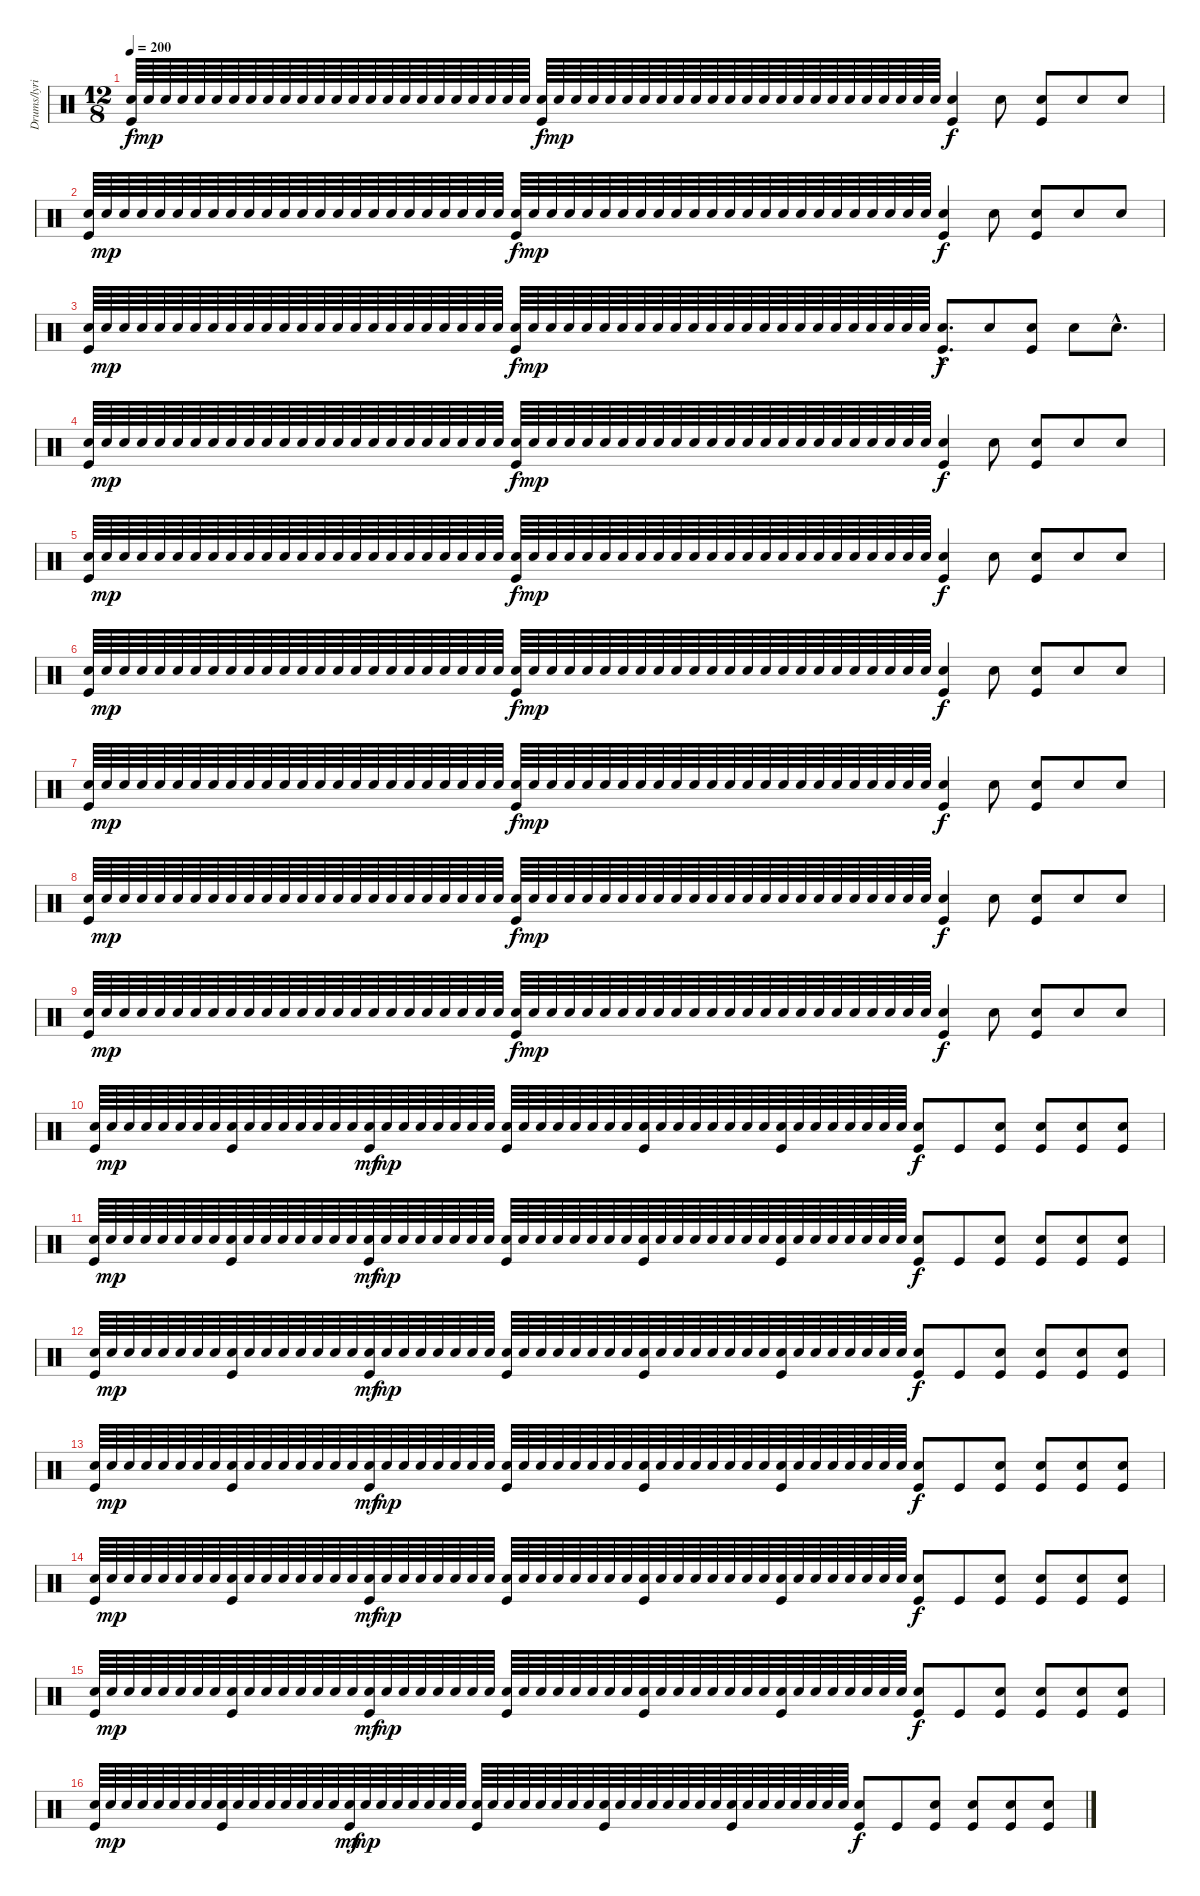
\track ("Drums/lyrics" "Drums/lyri") {instrument percussion}
\staff {score}
\articulation defaults
\ts (12 8)
\tempo 200
\clef neutral
\ks c
("Snare (hit) 2" "Kick (hit)").64{dy f} "Snare (hit) 2".64{dy mp} "Snare (hit) 2".64 "Snare (hit) 2".64 "Snare (hit) 2".64 "Snare (hit) 2".64 "Snare (hit) 2".64 "Snare (hit) 2".64 "Snare (hit) 2".64 "Snare (hit) 2".64 "Snare (hit) 2".64 "Snare (hit) 2".64 "Snare (hit) 2".64 "Snare (hit) 2".64 "Snare (hit) 2".64 "Snare (hit) 2".64 "Snare (hit) 2".64 "Snare (hit) 2".64 "Snare (hit) 2".64 "Snare (hit) 2".64 "Snare (hit) 2".64 "Snare (hit) 2".64 "Snare (hit) 2".64 "Snare (hit) 2".64 ("Snare (hit) 2" "Kick (hit)").64{dy f} "Snare (hit) 2".64{dy mp} "Snare (hit) 2".64 "Snare (hit) 2".64 "Snare (hit) 2".64 "Snare (hit) 2".64 "Snare (hit) 2".64 "Snare (hit) 2".64 "Snare (hit) 2".64 "Snare (hit) 2".64 "Snare (hit) 2".64 "Snare (hit) 2".64 "Snare (hit) 2".64 "Snare (hit) 2".64 "Snare (hit) 2".64 "Snare (hit) 2".64 "Snare (hit) 2".64 "Snare (hit) 2".64 "Snare (hit) 2".64 "Snare (hit) 2".64 "Snare (hit) 2".64 "Snare (hit) 2".64 "Snare (hit) 2".64 "Snare (hit) 2".64 ("Snare (hit) 2" "Kick (hit)").4{dy f} "Snare (hit) 2".8 ("Snare (hit) 2" "Kick (hit)").8 "Snare (hit) 2".8 "Snare (hit) 2".8 |
("Snare (hit) 2" "Kick (hit)").64 "Snare (hit) 2".64{dy mp} "Snare (hit) 2".64 "Snare (hit) 2".64 "Snare (hit) 2".64 "Snare (hit) 2".64 "Snare (hit) 2".64 "Snare (hit) 2".64 "Snare (hit) 2".64 "Snare (hit) 2".64 "Snare (hit) 2".64 "Snare (hit) 2".64 "Snare (hit) 2".64 "Snare (hit) 2".64 "Snare (hit) 2".64 "Snare (hit) 2".64 "Snare (hit) 2".64 "Snare (hit) 2".64 "Snare (hit) 2".64 "Snare (hit) 2".64 "Snare (hit) 2".64 "Snare (hit) 2".64 "Snare (hit) 2".64 "Snare (hit) 2".64 ("Snare (hit) 2" "Kick (hit)").64{dy f} "Snare (hit) 2".64{dy mp} "Snare (hit) 2".64 "Snare (hit) 2".64 "Snare (hit) 2".64 "Snare (hit) 2".64 "Snare (hit) 2".64 "Snare (hit) 2".64 "Snare (hit) 2".64 "Snare (hit) 2".64 "Snare (hit) 2".64 "Snare (hit) 2".64 "Snare (hit) 2".64 "Snare (hit) 2".64 "Snare (hit) 2".64 "Snare (hit) 2".64 "Snare (hit) 2".64 "Snare (hit) 2".64 "Snare (hit) 2".64 "Snare (hit) 2".64 "Snare (hit) 2".64 "Snare (hit) 2".64 "Snare (hit) 2".64 "Snare (hit) 2".64 ("Snare (hit) 2" "Kick (hit)").4{dy f} "Snare (hit) 2".8 ("Snare (hit) 2" "Kick (hit)").8 "Snare (hit) 2".8 "Snare (hit) 2".8 |
("Snare (hit) 2" "Kick (hit)").64 "Snare (hit) 2".64{dy mp} "Snare (hit) 2".64 "Snare (hit) 2".64 "Snare (hit) 2".64 "Snare (hit) 2".64 "Snare (hit) 2".64 "Snare (hit) 2".64 "Snare (hit) 2".64 "Snare (hit) 2".64 "Snare (hit) 2".64 "Snare (hit) 2".64 "Snare (hit) 2".64 "Snare (hit) 2".64 "Snare (hit) 2".64 "Snare (hit) 2".64 "Snare (hit) 2".64 "Snare (hit) 2".64 "Snare (hit) 2".64 "Snare (hit) 2".64 "Snare (hit) 2".64 "Snare (hit) 2".64 "Snare (hit) 2".64 "Snare (hit) 2".64 ("Snare (hit) 2" "Kick (hit)").64{dy f} "Snare (hit) 2".64{dy mp} "Snare (hit) 2".64 "Snare (hit) 2".64 "Snare (hit) 2".64 "Snare (hit) 2".64 "Snare (hit) 2".64 "Snare (hit) 2".64 "Snare (hit) 2".64 "Snare (hit) 2".64 "Snare (hit) 2".64 "Snare (hit) 2".64 "Snare (hit) 2".64 "Snare (hit) 2".64 "Snare (hit) 2".64 "Snare (hit) 2".64 "Snare (hit) 2".64 "Snare (hit) 2".64 "Snare (hit) 2".64 "Snare (hit) 2".64 "Snare (hit) 2".64 "Snare (hit) 2".64 "Snare (hit) 2".64 "Snare (hit) 2".64 ("Snare (hit) 2"{hac} "Kick (hit)"{hac}).8{d dy f} "Snare (hit) 2".8 ("Snare (hit) 2" "Kick (hit)").8 "Snare (hit) 2".8 "Snare (hit) 2"{hac}.8{d} |
("Snare (hit) 2" "Kick (hit)").64 "Snare (hit) 2".64{dy mp} "Snare (hit) 2".64 "Snare (hit) 2".64 "Snare (hit) 2".64 "Snare (hit) 2".64 "Snare (hit) 2".64 "Snare (hit) 2".64 "Snare (hit) 2".64 "Snare (hit) 2".64 "Snare (hit) 2".64 "Snare (hit) 2".64 "Snare (hit) 2".64 "Snare (hit) 2".64 "Snare (hit) 2".64 "Snare (hit) 2".64 "Snare (hit) 2".64 "Snare (hit) 2".64 "Snare (hit) 2".64 "Snare (hit) 2".64 "Snare (hit) 2".64 "Snare (hit) 2".64 "Snare (hit) 2".64 "Snare (hit) 2".64 ("Snare (hit) 2" "Kick (hit)").64{dy f} "Snare (hit) 2".64{dy mp} "Snare (hit) 2".64 "Snare (hit) 2".64 "Snare (hit) 2".64 "Snare (hit) 2".64 "Snare (hit) 2".64 "Snare (hit) 2".64 "Snare (hit) 2".64 "Snare (hit) 2".64 "Snare (hit) 2".64 "Snare (hit) 2".64 "Snare (hit) 2".64 "Snare (hit) 2".64 "Snare (hit) 2".64 "Snare (hit) 2".64 "Snare (hit) 2".64 "Snare (hit) 2".64 "Snare (hit) 2".64 "Snare (hit) 2".64 "Snare (hit) 2".64 "Snare (hit) 2".64 "Snare (hit) 2".64 "Snare (hit) 2".64 ("Snare (hit) 2" "Kick (hit)").4{dy f} "Snare (hit) 2".8 ("Snare (hit) 2" "Kick (hit)").8 "Snare (hit) 2".8 "Snare (hit) 2".8 |
("Snare (hit) 2" "Kick (hit)").64 "Snare (hit) 2".64{dy mp} "Snare (hit) 2".64 "Snare (hit) 2".64 "Snare (hit) 2".64 "Snare (hit) 2".64 "Snare (hit) 2".64 "Snare (hit) 2".64 "Snare (hit) 2".64 "Snare (hit) 2".64 "Snare (hit) 2".64 "Snare (hit) 2".64 "Snare (hit) 2".64 "Snare (hit) 2".64 "Snare (hit) 2".64 "Snare (hit) 2".64 "Snare (hit) 2".64 "Snare (hit) 2".64 "Snare (hit) 2".64 "Snare (hit) 2".64 "Snare (hit) 2".64 "Snare (hit) 2".64 "Snare (hit) 2".64 "Snare (hit) 2".64 ("Snare (hit) 2" "Kick (hit)").64{dy f} "Snare (hit) 2".64{dy mp} "Snare (hit) 2".64 "Snare (hit) 2".64 "Snare (hit) 2".64 "Snare (hit) 2".64 "Snare (hit) 2".64 "Snare (hit) 2".64 "Snare (hit) 2".64 "Snare (hit) 2".64 "Snare (hit) 2".64 "Snare (hit) 2".64 "Snare (hit) 2".64 "Snare (hit) 2".64 "Snare (hit) 2".64 "Snare (hit) 2".64 "Snare (hit) 2".64 "Snare (hit) 2".64 "Snare (hit) 2".64 "Snare (hit) 2".64 "Snare (hit) 2".64 "Snare (hit) 2".64 "Snare (hit) 2".64 "Snare (hit) 2".64 ("Snare (hit) 2" "Kick (hit)").4{dy f} "Snare (hit) 2".8 ("Snare (hit) 2" "Kick (hit)").8 "Snare (hit) 2".8 "Snare (hit) 2".8 |
("Snare (hit) 2" "Kick (hit)").64 "Snare (hit) 2".64{dy mp} "Snare (hit) 2".64 "Snare (hit) 2".64 "Snare (hit) 2".64 "Snare (hit) 2".64 "Snare (hit) 2".64 "Snare (hit) 2".64 "Snare (hit) 2".64 "Snare (hit) 2".64 "Snare (hit) 2".64 "Snare (hit) 2".64 "Snare (hit) 2".64 "Snare (hit) 2".64 "Snare (hit) 2".64 "Snare (hit) 2".64 "Snare (hit) 2".64 "Snare (hit) 2".64 "Snare (hit) 2".64 "Snare (hit) 2".64 "Snare (hit) 2".64 "Snare (hit) 2".64 "Snare (hit) 2".64 "Snare (hit) 2".64 ("Snare (hit) 2" "Kick (hit)").64{dy f} "Snare (hit) 2".64{dy mp} "Snare (hit) 2".64 "Snare (hit) 2".64 "Snare (hit) 2".64 "Snare (hit) 2".64 "Snare (hit) 2".64 "Snare (hit) 2".64 "Snare (hit) 2".64 "Snare (hit) 2".64 "Snare (hit) 2".64 "Snare (hit) 2".64 "Snare (hit) 2".64 "Snare (hit) 2".64 "Snare (hit) 2".64 "Snare (hit) 2".64 "Snare (hit) 2".64 "Snare (hit) 2".64 "Snare (hit) 2".64 "Snare (hit) 2".64 "Snare (hit) 2".64 "Snare (hit) 2".64 "Snare (hit) 2".64 "Snare (hit) 2".64 ("Snare (hit) 2" "Kick (hit)").4{dy f} "Snare (hit) 2".8 ("Snare (hit) 2" "Kick (hit)").8 "Snare (hit) 2".8 "Snare (hit) 2".8 |
("Snare (hit) 2" "Kick (hit)").64 "Snare (hit) 2".64{dy mp} "Snare (hit) 2".64 "Snare (hit) 2".64 "Snare (hit) 2".64 "Snare (hit) 2".64 "Snare (hit) 2".64 "Snare (hit) 2".64 "Snare (hit) 2".64 "Snare (hit) 2".64 "Snare (hit) 2".64 "Snare (hit) 2".64 "Snare (hit) 2".64 "Snare (hit) 2".64 "Snare (hit) 2".64 "Snare (hit) 2".64 "Snare (hit) 2".64 "Snare (hit) 2".64 "Snare (hit) 2".64 "Snare (hit) 2".64 "Snare (hit) 2".64 "Snare (hit) 2".64 "Snare (hit) 2".64 "Snare (hit) 2".64 ("Snare (hit) 2" "Kick (hit)").64{dy f} "Snare (hit) 2".64{dy mp} "Snare (hit) 2".64 "Snare (hit) 2".64 "Snare (hit) 2".64 "Snare (hit) 2".64 "Snare (hit) 2".64 "Snare (hit) 2".64 "Snare (hit) 2".64 "Snare (hit) 2".64 "Snare (hit) 2".64 "Snare (hit) 2".64 "Snare (hit) 2".64 "Snare (hit) 2".64 "Snare (hit) 2".64 "Snare (hit) 2".64 "Snare (hit) 2".64 "Snare (hit) 2".64 "Snare (hit) 2".64 "Snare (hit) 2".64 "Snare (hit) 2".64 "Snare (hit) 2".64 "Snare (hit) 2".64 "Snare (hit) 2".64 ("Snare (hit) 2" "Kick (hit)").4{dy f} "Snare (hit) 2".8 ("Snare (hit) 2" "Kick (hit)").8 "Snare (hit) 2".8 "Snare (hit) 2".8 |
("Snare (hit) 2" "Kick (hit)").64 "Snare (hit) 2".64{dy mp} "Snare (hit) 2".64 "Snare (hit) 2".64 "Snare (hit) 2".64 "Snare (hit) 2".64 "Snare (hit) 2".64 "Snare (hit) 2".64 "Snare (hit) 2".64 "Snare (hit) 2".64 "Snare (hit) 2".64 "Snare (hit) 2".64 "Snare (hit) 2".64 "Snare (hit) 2".64 "Snare (hit) 2".64 "Snare (hit) 2".64 "Snare (hit) 2".64 "Snare (hit) 2".64 "Snare (hit) 2".64 "Snare (hit) 2".64 "Snare (hit) 2".64 "Snare (hit) 2".64 "Snare (hit) 2".64 "Snare (hit) 2".64 ("Snare (hit) 2" "Kick (hit)").64{dy f} "Snare (hit) 2".64{dy mp} "Snare (hit) 2".64 "Snare (hit) 2".64 "Snare (hit) 2".64 "Snare (hit) 2".64 "Snare (hit) 2".64 "Snare (hit) 2".64 "Snare (hit) 2".64 "Snare (hit) 2".64 "Snare (hit) 2".64 "Snare (hit) 2".64 "Snare (hit) 2".64 "Snare (hit) 2".64 "Snare (hit) 2".64 "Snare (hit) 2".64 "Snare (hit) 2".64 "Snare (hit) 2".64 "Snare (hit) 2".64 "Snare (hit) 2".64 "Snare (hit) 2".64 "Snare (hit) 2".64 "Snare (hit) 2".64 "Snare (hit) 2".64 ("Snare (hit) 2" "Kick (hit)").4{dy f} "Snare (hit) 2".8 ("Snare (hit) 2" "Kick (hit)").8 "Snare (hit) 2".8 "Snare (hit) 2".8 |
("Snare (hit) 2" "Kick (hit)").64 "Snare (hit) 2".64{dy mp} "Snare (hit) 2".64 "Snare (hit) 2".64 "Snare (hit) 2".64 "Snare (hit) 2".64 "Snare (hit) 2".64 "Snare (hit) 2".64 "Snare (hit) 2".64 "Snare (hit) 2".64 "Snare (hit) 2".64 "Snare (hit) 2".64 "Snare (hit) 2".64 "Snare (hit) 2".64 "Snare (hit) 2".64 "Snare (hit) 2".64 "Snare (hit) 2".64 "Snare (hit) 2".64 "Snare (hit) 2".64 "Snare (hit) 2".64 "Snare (hit) 2".64 "Snare (hit) 2".64 "Snare (hit) 2".64 "Snare (hit) 2".64 ("Snare (hit) 2" "Kick (hit)").64{dy f} "Snare (hit) 2".64{dy mp} "Snare (hit) 2".64 "Snare (hit) 2".64 "Snare (hit) 2".64 "Snare (hit) 2".64 "Snare (hit) 2".64 "Snare (hit) 2".64 "Snare (hit) 2".64 "Snare (hit) 2".64 "Snare (hit) 2".64 "Snare (hit) 2".64 "Snare (hit) 2".64 "Snare (hit) 2".64 "Snare (hit) 2".64 "Snare (hit) 2".64 "Snare (hit) 2".64 "Snare (hit) 2".64 "Snare (hit) 2".64 "Snare (hit) 2".64 "Snare (hit) 2".64 "Snare (hit) 2".64 "Snare (hit) 2".64 "Snare (hit) 2".64 ("Snare (hit) 2" "Kick (hit)").4{dy f} "Snare (hit) 2".8 ("Snare (hit) 2" "Kick (hit)").8 "Snare (hit) 2".8 "Snare (hit) 2".8 |
("Snare (hit) 2" "Kick (hit)").64 "Snare (hit) 2".64{dy mp} "Snare (hit) 2".64 "Snare (hit) 2".64 "Snare (hit) 2".64 "Snare (hit) 2".64 "Snare (hit) 2".64 "Snare (hit) 2".64 ("Snare (hit) 2" "Kick (hit)").64 "Snare (hit) 2".64 "Snare (hit) 2".64 "Snare (hit) 2".64 "Snare (hit) 2".64 "Snare (hit) 2".64 "Snare (hit) 2".64 "Snare (hit) 2".64 ("Snare (hit) 2" "Kick (hit)").64{dy mf} "Snare (hit) 2".64{dy mp} "Snare (hit) 2".64 "Snare (hit) 2".64 "Snare (hit) 2".64 "Snare (hit) 2".64 "Snare (hit) 2".64 "Snare (hit) 2".64 ("Snare (hit) 2" "Kick (hit)").64 "Snare (hit) 2".64 "Snare (hit) 2".64 "Snare (hit) 2".64 "Snare (hit) 2".64 "Snare (hit) 2".64 "Snare (hit) 2".64 "Snare (hit) 2".64 ("Snare (hit) 2" "Kick (hit)").64 "Snare (hit) 2".64 "Snare (hit) 2".64 "Snare (hit) 2".64 "Snare (hit) 2".64 "Snare (hit) 2".64 "Snare (hit) 2".64 "Snare (hit) 2".64 ("Snare (hit) 2" "Kick (hit)").64 "Snare (hit) 2".64 "Snare (hit) 2".64 "Snare (hit) 2".64 "Snare (hit) 2".64 "Snare (hit) 2".64 "Snare (hit) 2".64 "Snare (hit) 2".64 ("Snare (hit) 2" "Kick (hit)").8{dy f} "Kick (hit)".8 ("Snare (hit) 2" "Kick (hit)").8 ("Snare (hit) 2" "Kick (hit)").8 ("Snare (hit) 2" "Kick (hit)").8 ("Snare (hit) 2" "Kick (hit)").8 |
("Snare (hit) 2" "Kick (hit)").64 "Snare (hit) 2".64{dy mp} "Snare (hit) 2".64 "Snare (hit) 2".64 "Snare (hit) 2".64 "Snare (hit) 2".64 "Snare (hit) 2".64 "Snare (hit) 2".64 ("Snare (hit) 2" "Kick (hit)").64 "Snare (hit) 2".64 "Snare (hit) 2".64 "Snare (hit) 2".64 "Snare (hit) 2".64 "Snare (hit) 2".64 "Snare (hit) 2".64 "Snare (hit) 2".64 ("Snare (hit) 2" "Kick (hit)").64{dy mf} "Snare (hit) 2".64{dy mp} "Snare (hit) 2".64 "Snare (hit) 2".64 "Snare (hit) 2".64 "Snare (hit) 2".64 "Snare (hit) 2".64 "Snare (hit) 2".64 ("Snare (hit) 2" "Kick (hit)").64 "Snare (hit) 2".64 "Snare (hit) 2".64 "Snare (hit) 2".64 "Snare (hit) 2".64 "Snare (hit) 2".64 "Snare (hit) 2".64 "Snare (hit) 2".64 ("Snare (hit) 2" "Kick (hit)").64 "Snare (hit) 2".64 "Snare (hit) 2".64 "Snare (hit) 2".64 "Snare (hit) 2".64 "Snare (hit) 2".64 "Snare (hit) 2".64 "Snare (hit) 2".64 ("Snare (hit) 2" "Kick (hit)").64 "Snare (hit) 2".64 "Snare (hit) 2".64 "Snare (hit) 2".64 "Snare (hit) 2".64 "Snare (hit) 2".64 "Snare (hit) 2".64 "Snare (hit) 2".64 ("Snare (hit) 2" "Kick (hit)").8{dy f} "Kick (hit)".8 ("Snare (hit) 2" "Kick (hit)").8 ("Snare (hit) 2" "Kick (hit)").8 ("Snare (hit) 2" "Kick (hit)").8 ("Snare (hit) 2" "Kick (hit)").8 |
("Snare (hit) 2" "Kick (hit)").64 "Snare (hit) 2".64{dy mp} "Snare (hit) 2".64 "Snare (hit) 2".64 "Snare (hit) 2".64 "Snare (hit) 2".64 "Snare (hit) 2".64 "Snare (hit) 2".64 ("Snare (hit) 2" "Kick (hit)").64 "Snare (hit) 2".64 "Snare (hit) 2".64 "Snare (hit) 2".64 "Snare (hit) 2".64 "Snare (hit) 2".64 "Snare (hit) 2".64 "Snare (hit) 2".64 ("Snare (hit) 2" "Kick (hit)").64{dy mf} "Snare (hit) 2".64{dy mp} "Snare (hit) 2".64 "Snare (hit) 2".64 "Snare (hit) 2".64 "Snare (hit) 2".64 "Snare (hit) 2".64 "Snare (hit) 2".64 ("Snare (hit) 2" "Kick (hit)").64 "Snare (hit) 2".64 "Snare (hit) 2".64 "Snare (hit) 2".64 "Snare (hit) 2".64 "Snare (hit) 2".64 "Snare (hit) 2".64 "Snare (hit) 2".64 ("Snare (hit) 2" "Kick (hit)").64 "Snare (hit) 2".64 "Snare (hit) 2".64 "Snare (hit) 2".64 "Snare (hit) 2".64 "Snare (hit) 2".64 "Snare (hit) 2".64 "Snare (hit) 2".64 ("Snare (hit) 2" "Kick (hit)").64 "Snare (hit) 2".64 "Snare (hit) 2".64 "Snare (hit) 2".64 "Snare (hit) 2".64 "Snare (hit) 2".64 "Snare (hit) 2".64 "Snare (hit) 2".64 ("Snare (hit) 2" "Kick (hit)").8{dy f} "Kick (hit)".8 ("Snare (hit) 2" "Kick (hit)").8 ("Snare (hit) 2" "Kick (hit)").8 ("Snare (hit) 2" "Kick (hit)").8 ("Snare (hit) 2" "Kick (hit)").8 |
("Snare (hit) 2" "Kick (hit)").64 "Snare (hit) 2".64{dy mp} "Snare (hit) 2".64 "Snare (hit) 2".64 "Snare (hit) 2".64 "Snare (hit) 2".64 "Snare (hit) 2".64 "Snare (hit) 2".64 ("Snare (hit) 2" "Kick (hit)").64 "Snare (hit) 2".64 "Snare (hit) 2".64 "Snare (hit) 2".64 "Snare (hit) 2".64 "Snare (hit) 2".64 "Snare (hit) 2".64 "Snare (hit) 2".64 ("Snare (hit) 2" "Kick (hit)").64{dy mf} "Snare (hit) 2".64{dy mp} "Snare (hit) 2".64 "Snare (hit) 2".64 "Snare (hit) 2".64 "Snare (hit) 2".64 "Snare (hit) 2".64 "Snare (hit) 2".64 ("Snare (hit) 2" "Kick (hit)").64 "Snare (hit) 2".64 "Snare (hit) 2".64 "Snare (hit) 2".64 "Snare (hit) 2".64 "Snare (hit) 2".64 "Snare (hit) 2".64 "Snare (hit) 2".64 ("Snare (hit) 2" "Kick (hit)").64 "Snare (hit) 2".64 "Snare (hit) 2".64 "Snare (hit) 2".64 "Snare (hit) 2".64 "Snare (hit) 2".64 "Snare (hit) 2".64 "Snare (hit) 2".64 ("Snare (hit) 2" "Kick (hit)").64 "Snare (hit) 2".64 "Snare (hit) 2".64 "Snare (hit) 2".64 "Snare (hit) 2".64 "Snare (hit) 2".64 "Snare (hit) 2".64 "Snare (hit) 2".64 ("Snare (hit) 2" "Kick (hit)").8{dy f} "Kick (hit)".8 ("Snare (hit) 2" "Kick (hit)").8 ("Snare (hit) 2" "Kick (hit)").8 ("Snare (hit) 2" "Kick (hit)").8 ("Snare (hit) 2" "Kick (hit)").8 |
("Snare (hit) 2" "Kick (hit)").64 "Snare (hit) 2".64{dy mp} "Snare (hit) 2".64 "Snare (hit) 2".64 "Snare (hit) 2".64 "Snare (hit) 2".64 "Snare (hit) 2".64 "Snare (hit) 2".64 ("Snare (hit) 2" "Kick (hit)").64 "Snare (hit) 2".64 "Snare (hit) 2".64 "Snare (hit) 2".64 "Snare (hit) 2".64 "Snare (hit) 2".64 "Snare (hit) 2".64 "Snare (hit) 2".64 ("Snare (hit) 2" "Kick (hit)").64{dy mf} "Snare (hit) 2".64{dy mp} "Snare (hit) 2".64 "Snare (hit) 2".64 "Snare (hit) 2".64 "Snare (hit) 2".64 "Snare (hit) 2".64 "Snare (hit) 2".64 ("Snare (hit) 2" "Kick (hit)").64 "Snare (hit) 2".64 "Snare (hit) 2".64 "Snare (hit) 2".64 "Snare (hit) 2".64 "Snare (hit) 2".64 "Snare (hit) 2".64 "Snare (hit) 2".64 ("Snare (hit) 2" "Kick (hit)").64 "Snare (hit) 2".64 "Snare (hit) 2".64 "Snare (hit) 2".64 "Snare (hit) 2".64 "Snare (hit) 2".64 "Snare (hit) 2".64 "Snare (hit) 2".64 ("Snare (hit) 2" "Kick (hit)").64 "Snare (hit) 2".64 "Snare (hit) 2".64 "Snare (hit) 2".64 "Snare (hit) 2".64 "Snare (hit) 2".64 "Snare (hit) 2".64 "Snare (hit) 2".64 ("Snare (hit) 2" "Kick (hit)").8{dy f} "Kick (hit)".8 ("Snare (hit) 2" "Kick (hit)").8 ("Snare (hit) 2" "Kick (hit)").8 ("Snare (hit) 2" "Kick (hit)").8 ("Snare (hit) 2" "Kick (hit)").8 |
("Snare (hit) 2" "Kick (hit)").64 "Snare (hit) 2".64{dy mp} "Snare (hit) 2".64 "Snare (hit) 2".64 "Snare (hit) 2".64 "Snare (hit) 2".64 "Snare (hit) 2".64 "Snare (hit) 2".64 ("Snare (hit) 2" "Kick (hit)").64 "Snare (hit) 2".64 "Snare (hit) 2".64 "Snare (hit) 2".64 "Snare (hit) 2".64 "Snare (hit) 2".64 "Snare (hit) 2".64 "Snare (hit) 2".64 ("Snare (hit) 2" "Kick (hit)").64{dy mf} "Snare (hit) 2".64{dy mp} "Snare (hit) 2".64 "Snare (hit) 2".64 "Snare (hit) 2".64 "Snare (hit) 2".64 "Snare (hit) 2".64 "Snare (hit) 2".64 ("Snare (hit) 2" "Kick (hit)").64 "Snare (hit) 2".64 "Snare (hit) 2".64 "Snare (hit) 2".64 "Snare (hit) 2".64 "Snare (hit) 2".64 "Snare (hit) 2".64 "Snare (hit) 2".64 ("Snare (hit) 2" "Kick (hit)").64 "Snare (hit) 2".64 "Snare (hit) 2".64 "Snare (hit) 2".64 "Snare (hit) 2".64 "Snare (hit) 2".64 "Snare (hit) 2".64 "Snare (hit) 2".64 ("Snare (hit) 2" "Kick (hit)").64 "Snare (hit) 2".64 "Snare (hit) 2".64 "Snare (hit) 2".64 "Snare (hit) 2".64 "Snare (hit) 2".64 "Snare (hit) 2".64 "Snare (hit) 2".64 ("Snare (hit) 2" "Kick (hit)").8{dy f} "Kick (hit)".8 ("Snare (hit) 2" "Kick (hit)").8 ("Snare (hit) 2" "Kick (hit)").8 ("Snare (hit) 2" "Kick (hit)").8 ("Snare (hit) 2" "Kick (hit)").8 |
("Snare (hit) 2" "Kick (hit)").64 "Snare (hit) 2".64{dy mp} "Snare (hit) 2".64 "Snare (hit) 2".64 "Snare (hit) 2".64 "Snare (hit) 2".64 "Snare (hit) 2".64 "Snare (hit) 2".64 ("Snare (hit) 2" "Kick (hit)").64 "Snare (hit) 2".64 "Snare (hit) 2".64 "Snare (hit) 2".64 "Snare (hit) 2".64 "Snare (hit) 2".64 "Snare (hit) 2".64 "Snare (hit) 2".64 ("Snare (hit) 2" "Kick (hit)").64{dy mf} "Snare (hit) 2".64{dy mp} "Snare (hit) 2".64 "Snare (hit) 2".64 "Snare (hit) 2".64 "Snare (hit) 2".64 "Snare (hit) 2".64 "Snare (hit) 2".64 ("Snare (hit) 2" "Kick (hit)").64 "Snare (hit) 2".64 "Snare (hit) 2".64 "Snare (hit) 2".64 "Snare (hit) 2".64 "Snare (hit) 2".64 "Snare (hit) 2".64 "Snare (hit) 2".64 ("Snare (hit) 2" "Kick (hit)").64 "Snare (hit) 2".64 "Snare (hit) 2".64 "Snare (hit) 2".64 "Snare (hit) 2".64 "Snare (hit) 2".64 "Snare (hit) 2".64 "Snare (hit) 2".64 ("Snare (hit) 2" "Kick (hit)").64 "Snare (hit) 2".64 "Snare (hit) 2".64 "Snare (hit) 2".64 "Snare (hit) 2".64 "Snare (hit) 2".64 "Snare (hit) 2".64 "Snare (hit) 2".64 ("Snare (hit) 2" "Kick (hit)").8{dy f} "Kick (hit)".8 ("Snare (hit) 2" "Kick (hit)").8 ("Snare (hit) 2" "Kick (hit)").8 ("Snare (hit) 2" "Kick (hit)").8 ("Snare (hit) 2" "Kick (hit)").8
